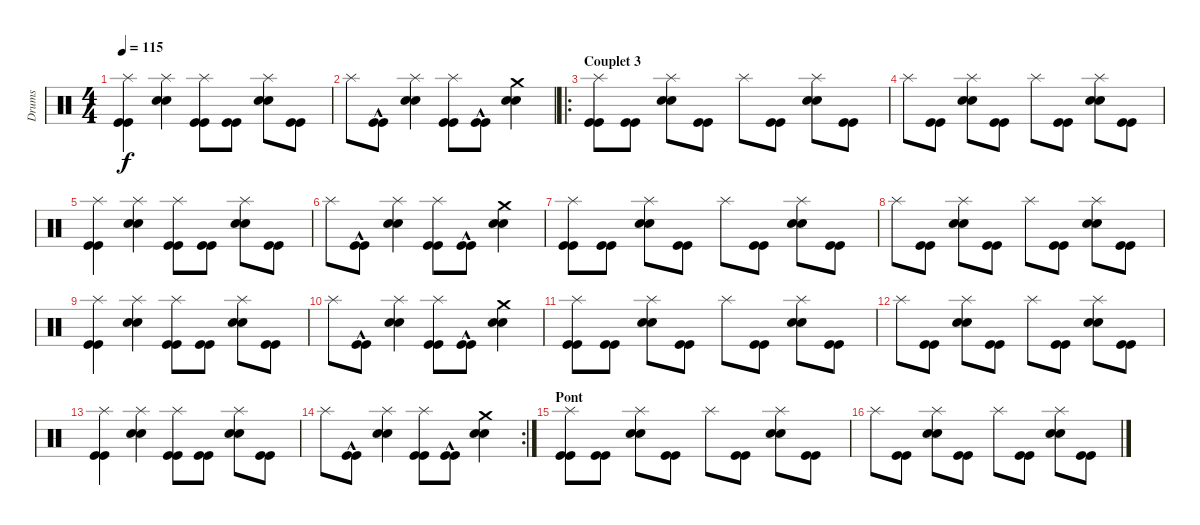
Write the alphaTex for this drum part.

\track ("Drums" "Drums") {instrument percussion}
\staff {score}
\articulation defaults
\ts (4 4)
\tempo 115
\clef neutral
\ks c
("Kick (hit)" "Kick (hit)" "Splash (hit)").4{dy f} ("Snare (hit) 2" "Snare (hit) 2" "Splash (hit)").4 ("Kick (hit)" "Kick (hit)" "Splash (hit)").8 ("Kick (hit)" "Kick (hit)").8 ("Snare (hit) 2" "Snare (hit) 2" "Splash (hit)").8 ("Kick (hit)" "Kick (hit)").8 |
"Splash (hit)".8 ("Kick (hit)"{hac} "Kick (hit)"{hac}).8 ("Snare (hit) 2" "Snare (hit) 2" "Splash (hit)").4 ("Kick (hit)" "Kick (hit)" "Splash (hit)").8 ("Kick (hit)"{hac} "Kick (hit)"{hac}).8 ("Snare (hit) 2" "Snare (hit) 2" "Crash medium (hit)").4 |
\ro
\section ("" "Couplet 3")
("Kick (hit)" "Kick (hit)" "Splash (hit)").8 ("Kick (hit)" "Kick (hit)").8 ("Snare (hit) 2" "Snare (hit) 2" "Splash (hit)").8 ("Kick (hit)" "Kick (hit)").8 "Splash (hit)".8 ("Kick (hit)" "Kick (hit)").8 ("Snare (hit) 2" "Snare (hit) 2" "Splash (hit)").8 ("Kick (hit)" "Kick (hit)").8 |
"Splash (hit)".8 ("Kick (hit)" "Kick (hit)").8 ("Snare (hit) 2" "Snare (hit) 2" "Splash (hit)").8 ("Kick (hit)" "Kick (hit)").8 "Splash (hit)".8 ("Kick (hit)" "Kick (hit)").8 ("Snare (hit) 2" "Snare (hit) 2" "Splash (hit)").8 ("Kick (hit)" "Kick (hit)").8 |
("Kick (hit)" "Kick (hit)" "Splash (hit)").4 ("Snare (hit) 2" "Snare (hit) 2" "Splash (hit)").4 ("Kick (hit)" "Kick (hit)" "Splash (hit)").8 ("Kick (hit)" "Kick (hit)").8 ("Snare (hit) 2" "Snare (hit) 2" "Splash (hit)").8 ("Kick (hit)" "Kick (hit)").8 |
"Splash (hit)".8 ("Kick (hit)"{hac} "Kick (hit)"{hac}).8 ("Snare (hit) 2" "Snare (hit) 2" "Splash (hit)").4 ("Kick (hit)" "Kick (hit)" "Splash (hit)").8 ("Kick (hit)"{hac} "Kick (hit)"{hac}).8 ("Snare (hit) 2" "Snare (hit) 2" "Crash medium (hit)").4 |
("Kick (hit)" "Kick (hit)" "Splash (hit)").8 ("Kick (hit)" "Kick (hit)").8 ("Snare (hit) 2" "Snare (hit) 2" "Splash (hit)").8 ("Kick (hit)" "Kick (hit)").8 "Splash (hit)".8 ("Kick (hit)" "Kick (hit)").8 ("Snare (hit) 2" "Snare (hit) 2" "Splash (hit)").8 ("Kick (hit)" "Kick (hit)").8 |
"Splash (hit)".8 ("Kick (hit)" "Kick (hit)").8 ("Snare (hit) 2" "Snare (hit) 2" "Splash (hit)").8 ("Kick (hit)" "Kick (hit)").8 "Splash (hit)".8 ("Kick (hit)" "Kick (hit)").8 ("Snare (hit) 2" "Snare (hit) 2" "Splash (hit)").8 ("Kick (hit)" "Kick (hit)").8 |
("Kick (hit)" "Kick (hit)" "Splash (hit)").4 ("Snare (hit) 2" "Snare (hit) 2" "Splash (hit)").4 ("Kick (hit)" "Kick (hit)" "Splash (hit)").8 ("Kick (hit)" "Kick (hit)").8 ("Snare (hit) 2" "Snare (hit) 2" "Splash (hit)").8 ("Kick (hit)" "Kick (hit)").8 |
"Splash (hit)".8 ("Kick (hit)"{hac} "Kick (hit)"{hac}).8 ("Snare (hit) 2" "Snare (hit) 2" "Splash (hit)").4 ("Kick (hit)" "Kick (hit)" "Splash (hit)").8 ("Kick (hit)"{hac} "Kick (hit)"{hac}).8 ("Snare (hit) 2" "Snare (hit) 2" "Crash medium (hit)").4 |
("Kick (hit)" "Kick (hit)" "Splash (hit)").8 ("Kick (hit)" "Kick (hit)").8 ("Snare (hit) 2" "Snare (hit) 2" "Splash (hit)").8 ("Kick (hit)" "Kick (hit)").8 "Splash (hit)".8 ("Kick (hit)" "Kick (hit)").8 ("Snare (hit) 2" "Snare (hit) 2" "Splash (hit)").8 ("Kick (hit)" "Kick (hit)").8 |
"Splash (hit)".8 ("Kick (hit)" "Kick (hit)").8 ("Snare (hit) 2" "Snare (hit) 2" "Splash (hit)").8 ("Kick (hit)" "Kick (hit)").8 "Splash (hit)".8 ("Kick (hit)" "Kick (hit)").8 ("Snare (hit) 2" "Snare (hit) 2" "Splash (hit)").8 ("Kick (hit)" "Kick (hit)").8 |
("Kick (hit)" "Kick (hit)" "Splash (hit)").4 ("Snare (hit) 2" "Snare (hit) 2" "Splash (hit)").4 ("Kick (hit)" "Kick (hit)" "Splash (hit)").8 ("Kick (hit)" "Kick (hit)").8 ("Snare (hit) 2" "Snare (hit) 2" "Splash (hit)").8 ("Kick (hit)" "Kick (hit)").8 |
\rc 2 "Splash (hit)".8
("Kick (hit)"{hac} "Kick (hit)"{hac}).8 ("Snare (hit) 2" "Snare (hit) 2" "Splash (hit)").4 ("Kick (hit)" "Kick (hit)" "Splash (hit)").8 ("Kick (hit)"{hac} "Kick (hit)"{hac}).8 ("Snare (hit) 2" "Snare (hit) 2" "Crash medium (hit)").4 |
\section ("" "Pont")
("Kick (hit)" "Kick (hit)" "Splash (hit)").8 ("Kick (hit)" "Kick (hit)").8 ("Snare (hit) 2" "Snare (hit) 2" "Splash (hit)").8 ("Kick (hit)" "Kick (hit)").8 "Splash (hit)".8 ("Kick (hit)" "Kick (hit)").8 ("Snare (hit) 2" "Snare (hit) 2" "Splash (hit)").8 ("Kick (hit)" "Kick (hit)").8 |
"Splash (hit)".8 ("Kick (hit)" "Kick (hit)").8 ("Snare (hit) 2" "Snare (hit) 2" "Splash (hit)").8 ("Kick (hit)" "Kick (hit)").8 "Splash (hit)".8 ("Kick (hit)" "Kick (hit)").8 ("Snare (hit) 2" "Snare (hit) 2" "Splash (hit)").8 ("Kick (hit)" "Kick (hit)").8
